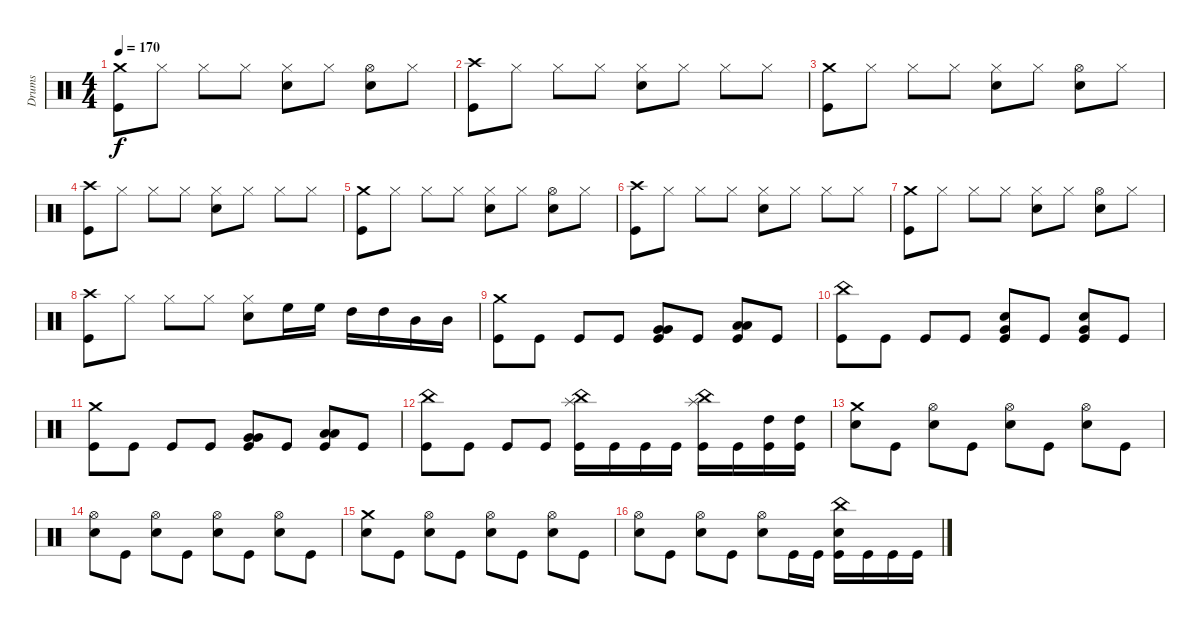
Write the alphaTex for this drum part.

\track ("Drums" "Drums") {instrument percussion}
\staff {score}
\articulation defaults
\ts (4 4)
\tempo 170
\clef neutral
\ks c
("Crash medium (hit)" "Kick (hit)").8{dy f} "Hi-Hat (closed)".8 "Hi-Hat (closed)".8 "Hi-Hat (closed)".8 ("Hi-Hat (closed)" "Electric Snare (hit)").8 "Hi-Hat (closed)".8 ("Hi-Hat (open)" "Electric Snare (hit)").8 "Hi-Hat (closed)".8 |
("Crash high (hit)" "Kick (hit)").8 "Hi-Hat (closed)".8 "Hi-Hat (closed)".8 "Hi-Hat (closed)".8 ("Hi-Hat (closed)" "Electric Snare (hit)").8 "Hi-Hat (closed)".8 "Hi-Hat (closed)".8 "Hi-Hat (closed)".8 |
("Crash medium (hit)" "Kick (hit)").8 "Hi-Hat (closed)".8 "Hi-Hat (closed)".8 "Hi-Hat (closed)".8 ("Hi-Hat (closed)" "Electric Snare (hit)").8 "Hi-Hat (closed)".8 ("Hi-Hat (open)" "Electric Snare (hit)").8 "Hi-Hat (closed)".8 |
("Crash high (hit)" "Kick (hit)").8 "Hi-Hat (closed)".8 "Hi-Hat (closed)".8 "Hi-Hat (closed)".8 ("Hi-Hat (closed)" "Electric Snare (hit)").8 "Hi-Hat (closed)".8 "Hi-Hat (closed)".8 "Hi-Hat (closed)".8 |
("Crash medium (hit)" "Kick (hit)").8 "Hi-Hat (closed)".8 "Hi-Hat (closed)".8 "Hi-Hat (closed)".8 ("Hi-Hat (closed)" "Electric Snare (hit)").8 "Hi-Hat (closed)".8 ("Hi-Hat (open)" "Electric Snare (hit)").8 "Hi-Hat (closed)".8 |
("Crash high (hit)" "Kick (hit)").8 "Hi-Hat (closed)".8 "Hi-Hat (closed)".8 "Hi-Hat (closed)".8 ("Hi-Hat (closed)" "Electric Snare (hit)").8 "Hi-Hat (closed)".8 "Hi-Hat (closed)".8 "Hi-Hat (closed)".8 |
("Crash medium (hit)" "Kick (hit)").8 "Hi-Hat (closed)".8 "Hi-Hat (closed)".8 "Hi-Hat (closed)".8 ("Hi-Hat (closed)" "Electric Snare (hit)").8 "Hi-Hat (closed)".8 ("Hi-Hat (open)" "Electric Snare (hit)").8 "Hi-Hat (closed)".8 |
("Crash high (hit)" "Kick (hit)").8 "Hi-Hat (closed)".8 "Hi-Hat (closed)".8 "Hi-Hat (closed)".8 ("Hi-Hat (closed)" "Electric Snare (hit)").8 "High Floor Tom (hit)".16 "High Floor Tom (hit)".16 "High Tom (hit)".16 "High Tom (hit)".16 "Mid Tom (hit)".16 "Mid Tom (hit)".16 |
("Crash medium (hit)" "Kick (hit)").8 "Kick (hit)".8 "Kick (hit)".8 "Kick (hit)".8 ("Very Low Tom (hit)" "Very Low Tom (hit)" "Kick (hit)").8 "Kick (hit)".8 ("Low Floor Tom (hit)" "Low Floor Tom (hit)" "Kick (hit)").8 "Kick (hit)".8 |
("China (hit)" "Kick (hit)").8 "Kick (hit)".8 "Kick (hit)".8 "Kick (hit)".8 ("Electric Snare (hit)" "Very Low Tom (hit)" "Kick (hit)").8 "Kick (hit)".8 ("Electric Snare (hit)" "Very Low Tom (hit)" "Kick (hit)").8 "Kick (hit)".8 |
("Crash medium (hit)" "Kick (hit)").8 "Kick (hit)".8 "Kick (hit)".8 "Kick (hit)".8 ("Very Low Tom (hit)" "Very Low Tom (hit)" "Kick (hit)").8 "Kick (hit)".8 ("Low Floor Tom (hit)" "Low Floor Tom (hit)" "Kick (hit)").8 "Kick (hit)".8 |
("China (hit)" "Kick (hit)").8 "Kick (hit)".8 "Kick (hit)".8 "Kick (hit)".8 ("Splash (hit)" "China (hit)" "Kick (hit)").16 "Kick (hit)".16 "Kick (hit)".16 "Kick (hit)".16 ("Splash (hit)" "China (hit)" "Kick (hit)").16 "Kick (hit)".16 ("High Tom (hit)" "Kick (hit)").16 ("High Tom (hit)" "Kick (hit)").16 |
("Crash medium (hit)" "Electric Snare (hit)").8 "Kick (hit)".8 ("Hi-Hat (open)" "Electric Snare (hit)").8 "Kick (hit)".8 ("Hi-Hat (open)" "Electric Snare (hit)").8 "Kick (hit)".8 ("Hi-Hat (open)" "Electric Snare (hit)").8 "Kick (hit)".8 |
("Hi-Hat (open)" "Electric Snare (hit)").8 "Kick (hit)".8 ("Hi-Hat (open)" "Electric Snare (hit)").8 "Kick (hit)".8 ("Hi-Hat (open)" "Electric Snare (hit)").8 "Kick (hit)".8 ("Hi-Hat (open)" "Electric Snare (hit)").8 "Kick (hit)".8 |
("Crash medium (hit)" "Electric Snare (hit)").8 "Kick (hit)".8 ("Hi-Hat (open)" "Electric Snare (hit)").8 "Kick (hit)".8 ("Hi-Hat (open)" "Electric Snare (hit)").8 "Kick (hit)".8 ("Hi-Hat (open)" "Electric Snare (hit)").8 "Kick (hit)".8 |
("Hi-Hat (open)" "Electric Snare (hit)").8 "Kick (hit)".8 ("Hi-Hat (open)" "Electric Snare (hit)").8 "Kick (hit)".8 ("Hi-Hat (open)" "Electric Snare (hit)").8 "Kick (hit)".16 "Kick (hit)".16 ("China (hit)" "Electric Snare (hit)" "Kick (hit)").16 "Kick (hit)".16 "Kick (hit)".16 "Kick (hit)".16
